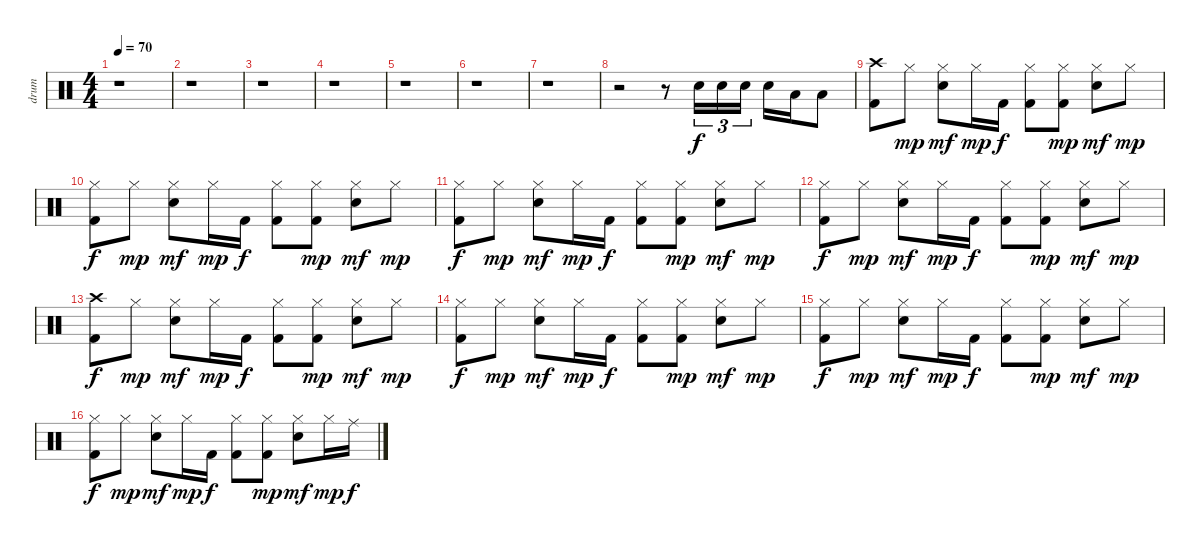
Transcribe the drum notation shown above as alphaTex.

\track ("drum" "drum") {instrument percussion}
\staff {score}
\articulation defaults
\ts (4 4)
\tempo 70
\clef neutral
\ks c
r.1{dy f} |
r.1 |
r.1 |
r.1 |
r.1 |
r.1 |
r.1 |
r.2 r.8 "Electric Snare (hit)".16{tu (3 2)} "Electric Snare (hit)".16{tu (3 2)} "Electric Snare (hit)".16{tu (3 2)} "Electric Snare (hit)".16 "Low Tom (hit)".16 "Low Tom (hit)".8 |
("Crash high (hit)" "Kick (hit) 2").8 "Hi-Hat (closed)".8{dy mp} ("Hi-Hat (closed)" "Electric Snare (hit)").8{dy mf} "Hi-Hat (closed)".16{dy mp} "Kick (hit) 2".16{dy f} ("Hi-Hat (closed)" "Kick (hit) 2").8 ("Hi-Hat (closed)" "Kick (hit) 2").8{dy mp} ("Hi-Hat (closed)" "Electric Snare (hit)").8{dy mf} "Hi-Hat (closed)".8{dy mp} |
("Hi-Hat (closed)" "Kick (hit) 2").8{dy f} "Hi-Hat (closed)".8{dy mp} ("Hi-Hat (closed)" "Electric Snare (hit)").8{dy mf} "Hi-Hat (closed)".16{dy mp} "Kick (hit) 2".16{dy f} ("Hi-Hat (closed)" "Kick (hit) 2").8 ("Hi-Hat (closed)" "Kick (hit) 2").8{dy mp} ("Hi-Hat (closed)" "Electric Snare (hit)").8{dy mf} "Hi-Hat (closed)".8{dy mp} |
("Hi-Hat (closed)" "Kick (hit) 2").8{dy f} "Hi-Hat (closed)".8{dy mp} ("Hi-Hat (closed)" "Electric Snare (hit)").8{dy mf} "Hi-Hat (closed)".16{dy mp} "Kick (hit) 2".16{dy f} ("Hi-Hat (closed)" "Kick (hit) 2").8 ("Hi-Hat (closed)" "Kick (hit) 2").8{dy mp} ("Hi-Hat (closed)" "Electric Snare (hit)").8{dy mf} "Hi-Hat (closed)".8{dy mp} |
("Hi-Hat (closed)" "Kick (hit) 2").8{dy f} "Hi-Hat (closed)".8{dy mp} ("Hi-Hat (closed)" "Electric Snare (hit)").8{dy mf} "Hi-Hat (closed)".16{dy mp} "Kick (hit) 2".16{dy f} ("Hi-Hat (closed)" "Kick (hit) 2").8 ("Hi-Hat (closed)" "Kick (hit) 2").8{dy mp} ("Hi-Hat (closed)" "Electric Snare (hit)").8{dy mf} "Hi-Hat (closed)".8{dy mp} |
("Crash high (hit)" "Kick (hit) 2").8{dy f} "Hi-Hat (closed)".8{dy mp} ("Hi-Hat (closed)" "Electric Snare (hit)").8{dy mf} "Hi-Hat (closed)".16{dy mp} "Kick (hit) 2".16{dy f} ("Hi-Hat (closed)" "Kick (hit) 2").8 ("Hi-Hat (closed)" "Kick (hit) 2").8{dy mp} ("Hi-Hat (closed)" "Electric Snare (hit)").8{dy mf} "Hi-Hat (closed)".8{dy mp} |
("Hi-Hat (closed)" "Kick (hit) 2").8{dy f} "Hi-Hat (closed)".8{dy mp} ("Hi-Hat (closed)" "Electric Snare (hit)").8{dy mf} "Hi-Hat (closed)".16{dy mp} "Kick (hit) 2".16{dy f} ("Hi-Hat (closed)" "Kick (hit) 2").8 ("Hi-Hat (closed)" "Kick (hit) 2").8{dy mp} ("Hi-Hat (closed)" "Electric Snare (hit)").8{dy mf} "Hi-Hat (closed)".8{dy mp} |
("Hi-Hat (closed)" "Kick (hit) 2").8{dy f} "Hi-Hat (closed)".8{dy mp} ("Hi-Hat (closed)" "Electric Snare (hit)").8{dy mf} "Hi-Hat (closed)".16{dy mp} "Kick (hit) 2".16{dy f} ("Hi-Hat (closed)" "Kick (hit) 2").8 ("Hi-Hat (closed)" "Kick (hit) 2").8{dy mp} ("Hi-Hat (closed)" "Electric Snare (hit)").8{dy mf} "Hi-Hat (closed)".8{dy mp} |
("Hi-Hat (closed)" "Kick (hit) 2").8{dy f} "Hi-Hat (closed)".8{dy mp} ("Hi-Hat (closed)" "Electric Snare (hit)").8{dy mf} "Hi-Hat (closed)".16{dy mp} "Kick (hit) 2".16{dy f} ("Hi-Hat (closed)" "Kick (hit) 2").8 ("Hi-Hat (closed)" "Kick (hit) 2").8{dy mp} ("Hi-Hat (closed)" "Electric Snare (hit)").8{dy mf} "Hi-Hat (closed)".16{dy mp} "Ride (middle)".16{dy f}
